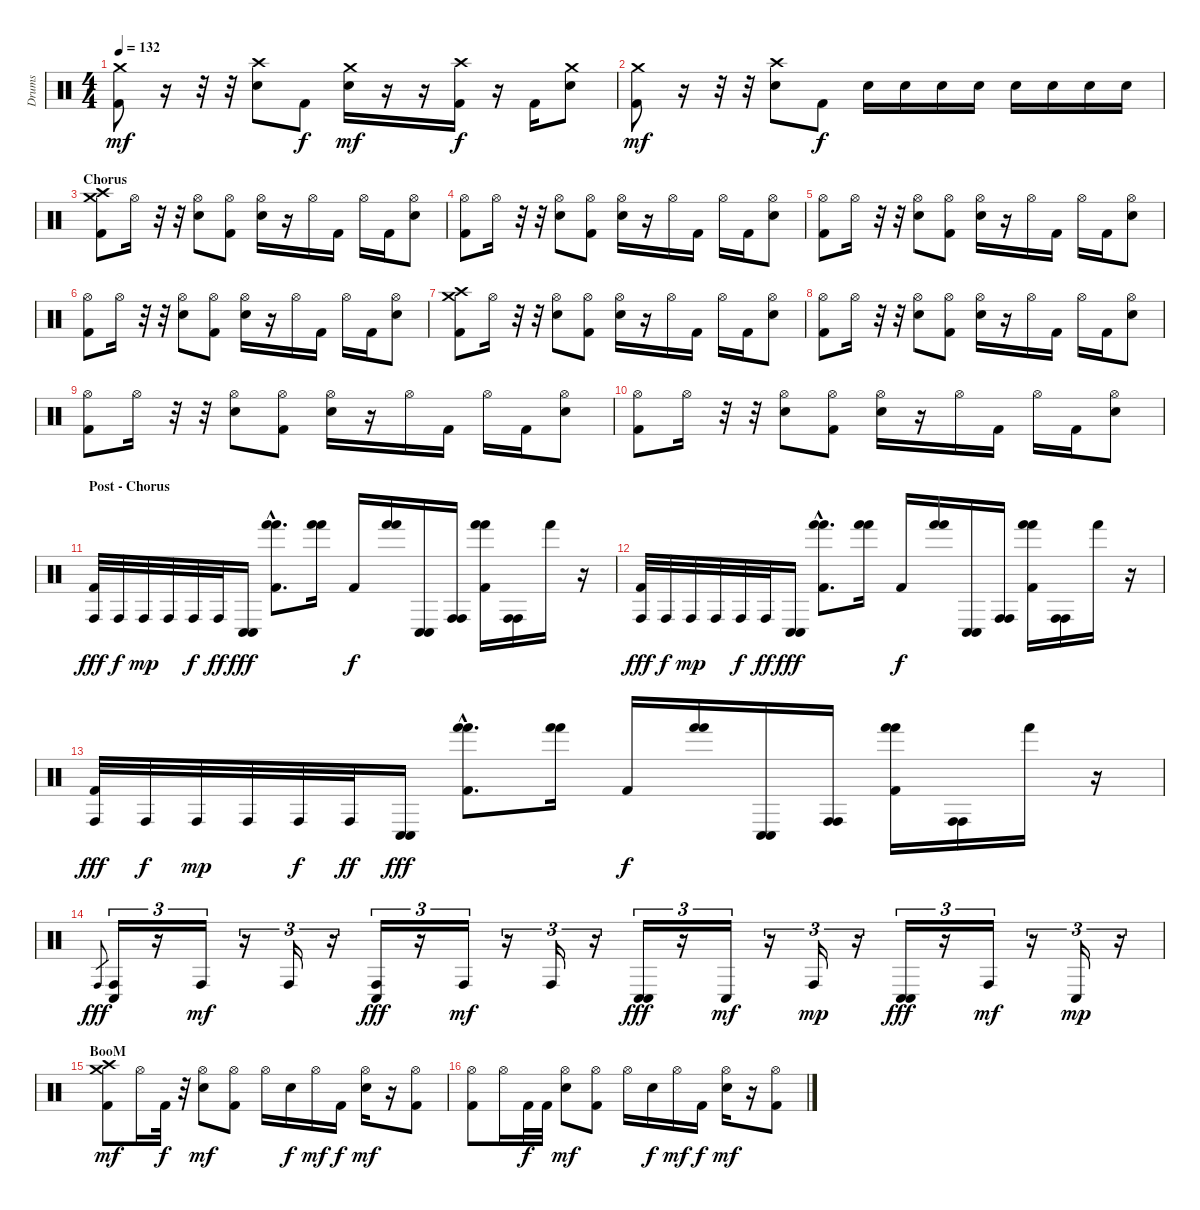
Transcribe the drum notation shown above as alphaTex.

\track ("Drums" "Drums") {instrument percussion}
\staff {score}
\articulation defaults
\ts (4 4)
\tempo 132
\clef neutral
\ks c
("Crash medium (hit)" "Kick (hit) 2").8{dy mf} r.16 r.32 r.32 ("Crash high (hit)" "Snare (hit) 2").8 "Kick (hit) 2".8{dy f} ("Crash medium (hit)" "Snare (hit) 2").16{dy mf} r.16 r.16 ("Crash high (hit)" "Kick (hit) 2").16{dy f} r.16 "Kick (hit) 2".16 ("Crash medium (hit)" "Snare (hit) 2").8 |
("Crash medium (hit)" "Kick (hit) 2").8{dy mf} r.16 r.32 r.32 ("Crash high (hit)" "Snare (hit) 2").8 "Kick (hit) 2".8{dy f} "Snare (hit) 2".16 "Snare (hit) 2".16 "Snare (hit) 2".16 "Snare (hit) 2".16 "Snare (hit) 2".16 "Snare (hit) 2".16 "Snare (hit) 2".16 "Snare (hit) 2".16 |
\section ("" "Chorus")
("Crash medium (hit)" "Crash high (hit)" "Kick (hit) 2").8 "Hi-Hat (open)".16 r.32 r.32 ("Hi-Hat (open)" "Snare (hit) 2").8 ("Hi-Hat (open)" "Kick (hit) 2").8 ("Hi-Hat (open)" "Snare (hit) 2").16 r.16 "Hi-Hat (open)".16 "Kick (hit) 2".16 "Hi-Hat (open)".16 "Kick (hit) 2".16 ("Hi-Hat (open)" "Snare (hit) 2").8 |
("Hi-Hat (open)" "Kick (hit) 2").8 "Hi-Hat (open)".16 r.32 r.32 ("Hi-Hat (open)" "Snare (hit) 2").8 ("Hi-Hat (open)" "Kick (hit) 2").8 ("Hi-Hat (open)" "Snare (hit) 2").16 r.16 "Hi-Hat (open)".16 "Kick (hit) 2".16 "Hi-Hat (open)".16 "Kick (hit) 2".16 ("Hi-Hat (open)" "Snare (hit) 2").8 |
("Hi-Hat (open)" "Kick (hit) 2").8 "Hi-Hat (open)".16 r.32 r.32 ("Hi-Hat (open)" "Snare (hit) 2").8 ("Hi-Hat (open)" "Kick (hit) 2").8 ("Hi-Hat (open)" "Snare (hit) 2").16 r.16 "Hi-Hat (open)".16 "Kick (hit) 2".16 "Hi-Hat (open)".16 "Kick (hit) 2".16 ("Hi-Hat (open)" "Snare (hit) 2").8 |
("Hi-Hat (open)" "Kick (hit) 2").8 "Hi-Hat (open)".16 r.32 r.32 ("Hi-Hat (open)" "Snare (hit) 2").8 ("Hi-Hat (open)" "Kick (hit) 2").8 ("Hi-Hat (open)" "Snare (hit) 2").16 r.16 "Hi-Hat (open)".16 "Kick (hit) 2".16 "Hi-Hat (open)".16 "Kick (hit) 2".16 ("Hi-Hat (open)" "Snare (hit) 2").8 |
("Crash medium (hit)" "Crash high (hit)" "Kick (hit) 2").8 "Hi-Hat (open)".16 r.32 r.32 ("Hi-Hat (open)" "Snare (hit) 2").8 ("Hi-Hat (open)" "Kick (hit) 2").8 ("Hi-Hat (open)" "Snare (hit) 2").16 r.16 "Hi-Hat (open)".16 "Kick (hit) 2".16 "Hi-Hat (open)".16 "Kick (hit) 2".16 ("Hi-Hat (open)" "Snare (hit) 2").8 |
("Hi-Hat (open)" "Kick (hit) 2").8 "Hi-Hat (open)".16 r.32 r.32 ("Hi-Hat (open)" "Snare (hit) 2").8 ("Hi-Hat (open)" "Kick (hit) 2").8 ("Hi-Hat (open)" "Snare (hit) 2").16 r.16 "Hi-Hat (open)".16 "Kick (hit) 2".16 "Hi-Hat (open)".16 "Kick (hit) 2".16 ("Hi-Hat (open)" "Snare (hit) 2").8 |
("Hi-Hat (open)" "Kick (hit) 2").8 "Hi-Hat (open)".16 r.32 r.32 ("Hi-Hat (open)" "Snare (hit) 2").8 ("Hi-Hat (open)" "Kick (hit) 2").8 ("Hi-Hat (open)" "Snare (hit) 2").16 r.16 "Hi-Hat (open)".16 "Kick (hit) 2".16 "Hi-Hat (open)".16 "Kick (hit) 2".16 ("Hi-Hat (open)" "Snare (hit) 2").8 |
("Hi-Hat (open)" "Kick (hit) 2").8 "Hi-Hat (open)".16 r.32 r.32 ("Hi-Hat (open)" "Snare (hit) 2").8 ("Hi-Hat (open)" "Kick (hit) 2").8 ("Hi-Hat (open)" "Snare (hit) 2").16 r.16 "Hi-Hat (open)".16 "Kick (hit) 2".16 "Hi-Hat (open)".16 "Kick (hit) 2".16 ("Hi-Hat (open)" "Snare (hit) 2").8 |
\section ("" "Post - Chorus")
("Kick (hit) 2" "Conga high (hit)").32{dy fff} "Conga high (hit)".32{dy f} "Conga high (hit)".32{dy mp} "Conga high (hit)".32 "Conga high (hit)".32{dy f} "Conga high (hit)".32{dy ff} ("Conga low (hit)" "Conga low (hit)").16{dy fff} ("Kick (hit) 2"{hac} "Hand (hit)"{hac} "Hand (hit)"{hac}).8{d} ("Hand (hit)" "Hand (hit)").16 "Kick (hit) 2".16{dy f} ("Hand (hit)" "Hand (hit)").16 ("Conga low (hit)" "Conga low (hit)").16 ("Conga high (hit)" "Conga high (hit)").16 ("Kick (hit) 2" "Hand (hit)" "Hand (hit)").16 ("Conga high (hit)" "Conga high (hit)").16 "Hand (hit)".16 r.16 |
("Kick (hit) 2" "Conga high (hit)").32{dy fff} "Conga high (hit)".32{dy f} "Conga high (hit)".32{dy mp} "Conga high (hit)".32 "Conga high (hit)".32{dy f} "Conga high (hit)".32{dy ff} ("Conga low (hit)" "Conga low (hit)").16{dy fff} ("Kick (hit) 2"{hac} "Hand (hit)"{hac} "Hand (hit)"{hac}).8{d} ("Hand (hit)" "Hand (hit)").16 "Kick (hit) 2".16{dy f} ("Hand (hit)" "Hand (hit)").16 ("Conga low (hit)" "Conga low (hit)").16 ("Conga high (hit)" "Conga high (hit)").16 ("Kick (hit) 2" "Hand (hit)" "Hand (hit)").16 ("Conga high (hit)" "Conga high (hit)").16 "Hand (hit)".16 r.16 |
("Kick (hit) 2" "Conga high (hit)").32{dy fff} "Conga high (hit)".32{dy f} "Conga high (hit)".32{dy mp} "Conga high (hit)".32 "Conga high (hit)".32{dy f} "Conga high (hit)".32{dy ff} ("Conga low (hit)" "Conga low (hit)").16{dy fff} ("Kick (hit) 2"{hac} "Hand (hit)"{hac} "Hand (hit)"{hac}).8{d} ("Hand (hit)" "Hand (hit)").16 "Kick (hit) 2".16{dy f} ("Hand (hit)" "Hand (hit)").16 ("Conga low (hit)" "Conga low (hit)").16 ("Conga high (hit)" "Conga high (hit)").16 ("Kick (hit) 2" "Hand (hit)" "Hand (hit)").16 ("Conga high (hit)" "Conga high (hit)").16 "Hand (hit)".16 r.16 |
"Conga high (hit)".8{gr dy fff} ("Conga low (hit)" "Conga high (hit)").16{tu (3 2)} r.16{tu (3 2)} "Conga high (hit)".16{tu (3 2) dy mf} r.16{tu (3 2)} "Conga high (hit)".16{tu (3 2)} r.16{tu (3 2)} ("Conga high (hit)" "Conga low (hit)").16{tu (3 2) dy fff} r.16{tu (3 2)} "Conga high (hit)".16{tu (3 2) dy mf} r.16{tu (3 2)} "Conga high (hit)".16{tu (3 2)} r.16{tu (3 2)} ("Conga low (hit)" "Conga low (hit)").16{tu (3 2) dy fff} r.16{tu (3 2)} "Conga low (hit)".16{tu (3 2) dy mf} r.16{tu (3 2)} "Conga high (hit)".16{tu (3 2) dy mp} r.16{tu (3 2)} ("Conga low (hit)" "Conga low (hit)").16{tu (3 2) dy fff} r.16{tu (3 2)} "Conga high (hit)".16{tu (3 2) dy mf} r.16{tu (3 2)} "Conga low (hit)".16{tu (3 2) dy mp} r.16{tu (3 2)} |
\section ("" "BooM")
("Crash high (hit)" "Crash medium (hit)" "Kick (hit) 2").8{dy mf} "Hi-Hat (open)".16 "Kick (hit) 2".32{dy f} r.32 ("Hi-Hat (open)" "Snare (hit) 2").8{dy mf} ("Hi-Hat (open)" "Kick (hit) 2").8 "Hi-Hat (open)".16 "Snare (hit) 2".16{dy f} "Hi-Hat (open)".16{dy mf} "Kick (hit) 2".16{dy f} ("Hi-Hat (open)" "Snare (hit) 2").16{dy mf} r.16 ("Hi-Hat (open)" "Kick (hit) 2").8 |
("Hi-Hat (open)" "Kick (hit) 2").8 "Hi-Hat (open)".16 "Kick (hit) 2".32{dy f} "Kick (hit) 2".32 ("Hi-Hat (open)" "Snare (hit) 2").8{dy mf} ("Hi-Hat (open)" "Kick (hit) 2").8 "Hi-Hat (open)".16 "Snare (hit) 2".16{dy f} "Hi-Hat (open)".16{dy mf} "Kick (hit) 2".16{dy f} ("Hi-Hat (open)" "Snare (hit) 2").16{dy mf} r.16 ("Hi-Hat (open)" "Kick (hit) 2").8
